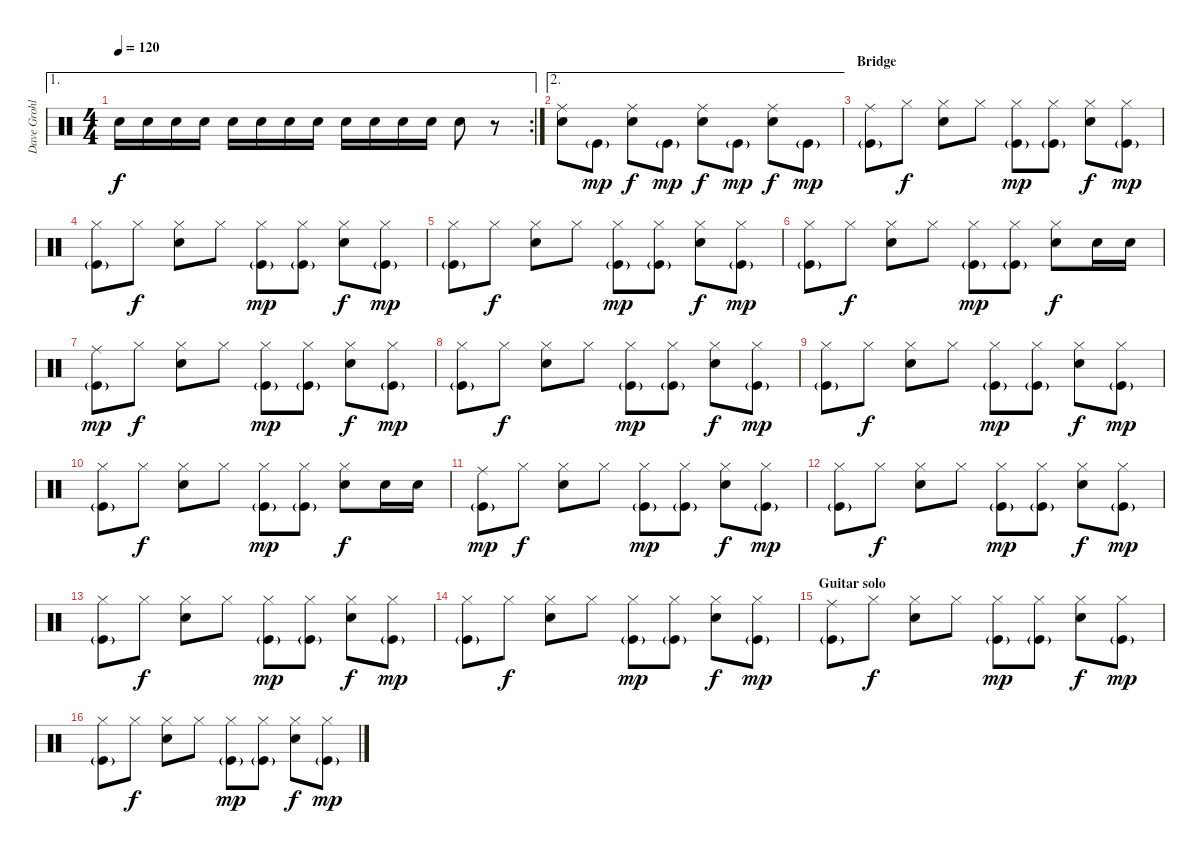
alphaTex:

\track ("Dave Grohl" "Dave Grohl") {instrument percussion}
\staff {score}
\articulation defaults
\ae 1
\rc 2
\ts (4 4)
\tempo 120
\clef neutral
\ks c "Electric Snare (hit)".16{dy f} "Electric Snare (hit)".16 "Electric Snare (hit)".16 "Electric Snare (hit)".16 "Electric Snare (hit)".16 "Electric Snare (hit)".16 "Electric Snare (hit)".16 "Electric Snare (hit)".16 "Electric Snare (hit)".16 "Electric Snare (hit)".16 "Electric Snare (hit)".16 "Electric Snare (hit)".16 "Electric Snare (hit)".8
r.8 |
\ae 2
("Ride (middle)" "Electric Snare (hit)").8 "Kick (hit)"{g}.8{dy mp} ("Ride (middle)" "Electric Snare (hit)").8{dy f} "Kick (hit)"{g}.8{dy mp} ("Ride (middle)" "Electric Snare (hit)").8{dy f} "Kick (hit)"{g}.8{dy mp} ("Ride (middle)" "Electric Snare (hit)").8{dy f} "Kick (hit)"{g}.8{dy mp} |
\section ("" "Bridge")
("Ride (middle)" "Kick (hit)"{g}).8 "Hi-Hat (closed)".8{dy f} ("Hi-Hat (closed)" "Electric Snare (hit)").8 "Hi-Hat (closed)".8 ("Hi-Hat (closed)" "Kick (hit)"{g}).8{dy mp} ("Hi-Hat (closed)" "Kick (hit)"{g}).8 ("Hi-Hat (closed)" "Electric Snare (hit)").8{dy f} ("Hi-Hat (closed)" "Kick (hit)"{g}).8{dy mp} |
("Hi-Hat (closed)" "Kick (hit)"{g}).8 "Hi-Hat (closed)".8{dy f} ("Hi-Hat (closed)" "Electric Snare (hit)").8 "Hi-Hat (closed)".8 ("Hi-Hat (closed)" "Kick (hit)"{g}).8{dy mp} ("Hi-Hat (closed)" "Kick (hit)"{g}).8 ("Hi-Hat (closed)" "Electric Snare (hit)").8{dy f} ("Hi-Hat (closed)" "Kick (hit)"{g}).8{dy mp} |
("Hi-Hat (closed)" "Kick (hit)"{g}).8 "Hi-Hat (closed)".8{dy f} ("Hi-Hat (closed)" "Electric Snare (hit)").8 "Hi-Hat (closed)".8 ("Hi-Hat (closed)" "Kick (hit)"{g}).8{dy mp} ("Hi-Hat (closed)" "Kick (hit)"{g}).8 ("Hi-Hat (closed)" "Electric Snare (hit)").8{dy f} ("Hi-Hat (closed)" "Kick (hit)"{g}).8{dy mp} |
("Hi-Hat (closed)" "Kick (hit)"{g}).8 "Hi-Hat (closed)".8{dy f} ("Hi-Hat (closed)" "Electric Snare (hit)").8 "Hi-Hat (closed)".8 ("Hi-Hat (closed)" "Kick (hit)"{g}).8{dy mp} ("Hi-Hat (closed)" "Kick (hit)"{g}).8 ("Hi-Hat (closed)" "Electric Snare (hit)").8{dy f} "Electric Snare (hit)".16 "Electric Snare (hit)".16 |
("Ride (middle)" "Kick (hit)"{g}).8{dy mp} "Hi-Hat (closed)".8{dy f} ("Hi-Hat (closed)" "Electric Snare (hit)").8 "Hi-Hat (closed)".8 ("Hi-Hat (closed)" "Kick (hit)"{g}).8{dy mp} ("Hi-Hat (closed)" "Kick (hit)"{g}).8 ("Hi-Hat (closed)" "Electric Snare (hit)").8{dy f} ("Hi-Hat (closed)" "Kick (hit)"{g}).8{dy mp} |
("Hi-Hat (closed)" "Kick (hit)"{g}).8 "Hi-Hat (closed)".8{dy f} ("Hi-Hat (closed)" "Electric Snare (hit)").8 "Hi-Hat (closed)".8 ("Hi-Hat (closed)" "Kick (hit)"{g}).8{dy mp} ("Hi-Hat (closed)" "Kick (hit)"{g}).8 ("Hi-Hat (closed)" "Electric Snare (hit)").8{dy f} ("Hi-Hat (closed)" "Kick (hit)"{g}).8{dy mp} |
("Hi-Hat (closed)" "Kick (hit)"{g}).8 "Hi-Hat (closed)".8{dy f} ("Hi-Hat (closed)" "Electric Snare (hit)").8 "Hi-Hat (closed)".8 ("Hi-Hat (closed)" "Kick (hit)"{g}).8{dy mp} ("Hi-Hat (closed)" "Kick (hit)"{g}).8 ("Hi-Hat (closed)" "Electric Snare (hit)").8{dy f} ("Hi-Hat (closed)" "Kick (hit)"{g}).8{dy mp} |
("Hi-Hat (closed)" "Kick (hit)"{g}).8 "Hi-Hat (closed)".8{dy f} ("Hi-Hat (closed)" "Electric Snare (hit)").8 "Hi-Hat (closed)".8 ("Hi-Hat (closed)" "Kick (hit)"{g}).8{dy mp} ("Hi-Hat (closed)" "Kick (hit)"{g}).8 ("Hi-Hat (closed)" "Electric Snare (hit)").8{dy f} "Electric Snare (hit)".16 "Electric Snare (hit)".16 |
("Ride (middle)" "Kick (hit)"{g}).8{dy mp} "Hi-Hat (closed)".8{dy f} ("Hi-Hat (closed)" "Electric Snare (hit)").8 "Hi-Hat (closed)".8 ("Hi-Hat (closed)" "Kick (hit)"{g}).8{dy mp} ("Hi-Hat (closed)" "Kick (hit)"{g}).8 ("Hi-Hat (closed)" "Electric Snare (hit)").8{dy f} ("Hi-Hat (closed)" "Kick (hit)"{g}).8{dy mp} |
("Hi-Hat (closed)" "Kick (hit)"{g}).8 "Hi-Hat (closed)".8{dy f} ("Hi-Hat (closed)" "Electric Snare (hit)").8 "Hi-Hat (closed)".8 ("Hi-Hat (closed)" "Kick (hit)"{g}).8{dy mp} ("Hi-Hat (closed)" "Kick (hit)"{g}).8 ("Hi-Hat (closed)" "Electric Snare (hit)").8{dy f} ("Hi-Hat (closed)" "Kick (hit)"{g}).8{dy mp} |
("Hi-Hat (closed)" "Kick (hit)"{g}).8 "Hi-Hat (closed)".8{dy f} ("Hi-Hat (closed)" "Electric Snare (hit)").8 "Hi-Hat (closed)".8 ("Hi-Hat (closed)" "Kick (hit)"{g}).8{dy mp} ("Hi-Hat (closed)" "Kick (hit)"{g}).8 ("Hi-Hat (closed)" "Electric Snare (hit)").8{dy f} ("Hi-Hat (closed)" "Kick (hit)"{g}).8{dy mp} |
("Hi-Hat (closed)" "Kick (hit)"{g}).8 "Hi-Hat (closed)".8{dy f} ("Hi-Hat (closed)" "Electric Snare (hit)").8 "Hi-Hat (closed)".8 ("Hi-Hat (closed)" "Kick (hit)"{g}).8{dy mp} ("Hi-Hat (closed)" "Kick (hit)"{g}).8 ("Hi-Hat (closed)" "Electric Snare (hit)").8{dy f} ("Hi-Hat (closed)" "Kick (hit)"{g}).8{dy mp} |
\section ("" "Guitar solo")
("Ride (middle)" "Kick (hit)"{g}).8 "Hi-Hat (closed)".8{dy f} ("Hi-Hat (closed)" "Electric Snare (hit)").8 "Hi-Hat (closed)".8 ("Hi-Hat (closed)" "Kick (hit)"{g}).8{dy mp} ("Hi-Hat (closed)" "Kick (hit)"{g}).8 ("Hi-Hat (closed)" "Electric Snare (hit)").8{dy f} ("Hi-Hat (closed)" "Kick (hit)"{g}).8{dy mp} |
("Hi-Hat (closed)" "Kick (hit)"{g}).8 "Hi-Hat (closed)".8{dy f} ("Hi-Hat (closed)" "Electric Snare (hit)").8 "Hi-Hat (closed)".8 ("Hi-Hat (closed)" "Kick (hit)"{g}).8{dy mp} ("Hi-Hat (closed)" "Kick (hit)"{g}).8 ("Hi-Hat (closed)" "Electric Snare (hit)").8{dy f} ("Hi-Hat (closed)" "Kick (hit)"{g}).8{dy mp}
